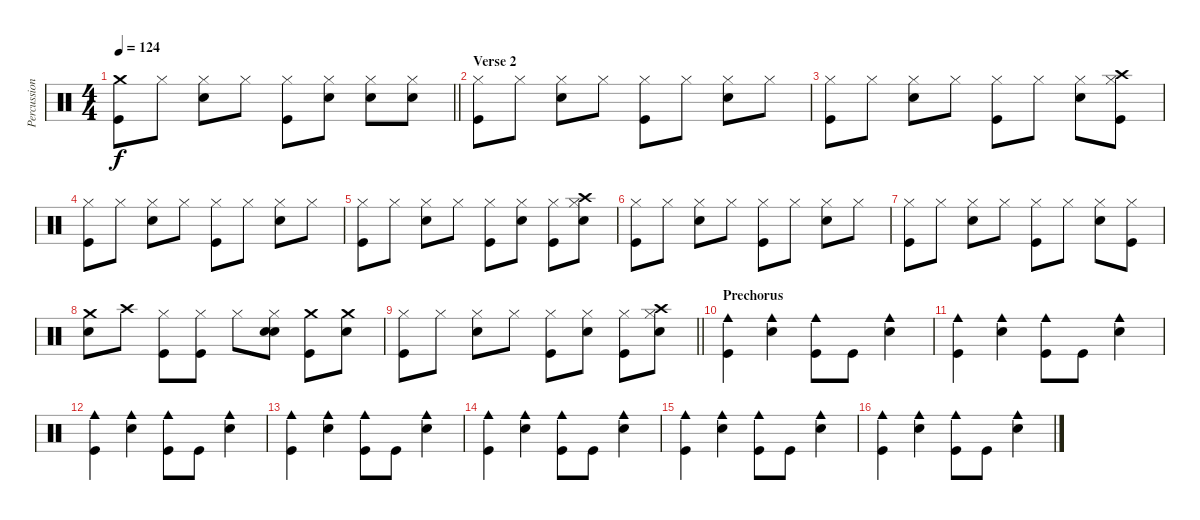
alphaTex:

\track ("Percussion" "Percussion") {solo instrument percussion}
\staff {score}
\articulation defaults
\ts (4 4)
\tempo 124
\clef neutral
\barLineRight lightlight
\ks c
("Crash medium (hit)" "Kick (hit)").8{dy f} "Hi-Hat (closed)".8 ("Hi-Hat (closed)" "Electric Snare (hit)").8 "Hi-Hat (closed)".8 ("Hi-Hat (closed)" "Kick (hit)").8 ("Hi-Hat (closed)" "Electric Snare (hit)").8 ("Hi-Hat (closed)" "Electric Snare (hit)").8 ("Hi-Hat (closed)" "Electric Snare (hit)").8 |
\section ("" "Verse 2")
("Hi-Hat (closed)" "Kick (hit)").8 "Hi-Hat (closed)".8 ("Hi-Hat (closed)" "Electric Snare (hit)").8 "Hi-Hat (closed)".8 ("Hi-Hat (closed)" "Kick (hit)").8 "Hi-Hat (closed)".8 ("Hi-Hat (closed)" "Electric Snare (hit)").8 "Hi-Hat (closed)".8 |
("Hi-Hat (closed)" "Kick (hit)").8 "Hi-Hat (closed)".8 ("Hi-Hat (closed)" "Electric Snare (hit)").8 "Hi-Hat (closed)".8 ("Hi-Hat (closed)" "Kick (hit)").8 "Hi-Hat (closed)".8 ("Hi-Hat (closed)" "Electric Snare (hit)").8 ("Hi-Hat (closed)" "Crash high (hit)" "Kick (hit)").8 |
("Hi-Hat (closed)" "Kick (hit)").8 "Hi-Hat (closed)".8 ("Hi-Hat (closed)" "Electric Snare (hit)").8 "Hi-Hat (closed)".8 ("Hi-Hat (closed)" "Kick (hit)").8 "Hi-Hat (closed)".8 ("Hi-Hat (closed)" "Electric Snare (hit)").8 "Hi-Hat (closed)".8 |
("Hi-Hat (closed)" "Kick (hit)").8 "Hi-Hat (closed)".8 ("Hi-Hat (closed)" "Electric Snare (hit)").8 "Hi-Hat (closed)".8 ("Hi-Hat (closed)" "Kick (hit)").8 ("Hi-Hat (closed)" "Electric Snare (hit)").8 ("Hi-Hat (closed)" "Kick (hit)").8 ("Hi-Hat (closed)" "Crash high (hit)" "Electric Snare (hit)").8 |
("Hi-Hat (closed)" "Kick (hit)").8 "Hi-Hat (closed)".8 ("Hi-Hat (closed)" "Electric Snare (hit)").8 "Hi-Hat (closed)".8 ("Hi-Hat (closed)" "Kick (hit)").8 "Hi-Hat (closed)".8 ("Hi-Hat (closed)" "Electric Snare (hit)").8 "Hi-Hat (closed)".8 |
("Hi-Hat (closed)" "Kick (hit)").8 "Hi-Hat (closed)".8 ("Hi-Hat (closed)" "Electric Snare (hit)").8 "Hi-Hat (closed)".8 ("Hi-Hat (closed)" "Kick (hit)").8 "Hi-Hat (closed)".8 ("Hi-Hat (closed)" "Electric Snare (hit)").8 ("Hi-Hat (closed)" "Kick (hit)").8 |
("Crash medium (hit)" "Electric Snare (hit)").8 "Crash high (hit)".8 ("Hi-Hat (closed)" "Kick (hit)").8 ("Hi-Hat (closed)" "Kick (hit)").8 "Hi-Hat (closed)".8 ("Hi-Hat (closed)" "Electric Snare (hit)" "Electric Snare (hit)").8 ("Crash medium (hit)" "Kick (hit)").8 ("Crash medium (hit)" "Electric Snare (hit)").8 |
\barLineRight lightlight
("Hi-Hat (closed)" "Kick (hit)").8 "Hi-Hat (closed)".8 ("Hi-Hat (closed)" "Electric Snare (hit)").8 "Hi-Hat (closed)".8 ("Hi-Hat (closed)" "Kick (hit)").8 ("Hi-Hat (closed)" "Electric Snare (hit)").8 ("Hi-Hat (closed)" "Kick (hit)").8 ("Hi-Hat (closed)" "Crash high (hit)" "Electric Snare (hit)").8 |
\section ("" "Prechorus")
("Cowbell medium (hit)" "Kick (hit)").4 ("Cowbell medium (hit)" "Electric Snare (hit)").4 ("Cowbell medium (hit)" "Kick (hit)").8 "Kick (hit)".8 ("Cowbell medium (hit)" "Electric Snare (hit)").4 |
("Cowbell medium (hit)" "Kick (hit)").4 ("Cowbell medium (hit)" "Electric Snare (hit)").4 ("Cowbell medium (hit)" "Kick (hit)").8 "Kick (hit)".8 ("Cowbell medium (hit)" "Electric Snare (hit)").4 |
("Cowbell medium (hit)" "Kick (hit)").4 ("Cowbell medium (hit)" "Electric Snare (hit)").4 ("Cowbell medium (hit)" "Kick (hit)").8 "Kick (hit)".8 ("Cowbell medium (hit)" "Electric Snare (hit)").4 |
("Cowbell medium (hit)" "Kick (hit)").4 ("Cowbell medium (hit)" "Electric Snare (hit)").4 ("Cowbell medium (hit)" "Kick (hit)").8 "Kick (hit)".8 ("Cowbell medium (hit)" "Electric Snare (hit)").4 |
("Cowbell medium (hit)" "Kick (hit)").4 ("Cowbell medium (hit)" "Electric Snare (hit)").4 ("Cowbell medium (hit)" "Kick (hit)").8 "Kick (hit)".8 ("Cowbell medium (hit)" "Electric Snare (hit)").4 |
("Cowbell medium (hit)" "Kick (hit)").4 ("Cowbell medium (hit)" "Electric Snare (hit)").4 ("Cowbell medium (hit)" "Kick (hit)").8 "Kick (hit)".8 ("Cowbell medium (hit)" "Electric Snare (hit)").4 |
("Cowbell medium (hit)" "Kick (hit)").4 ("Cowbell medium (hit)" "Electric Snare (hit)").4 ("Cowbell medium (hit)" "Kick (hit)").8 "Kick (hit)".8 ("Cowbell medium (hit)" "Electric Snare (hit)").4
